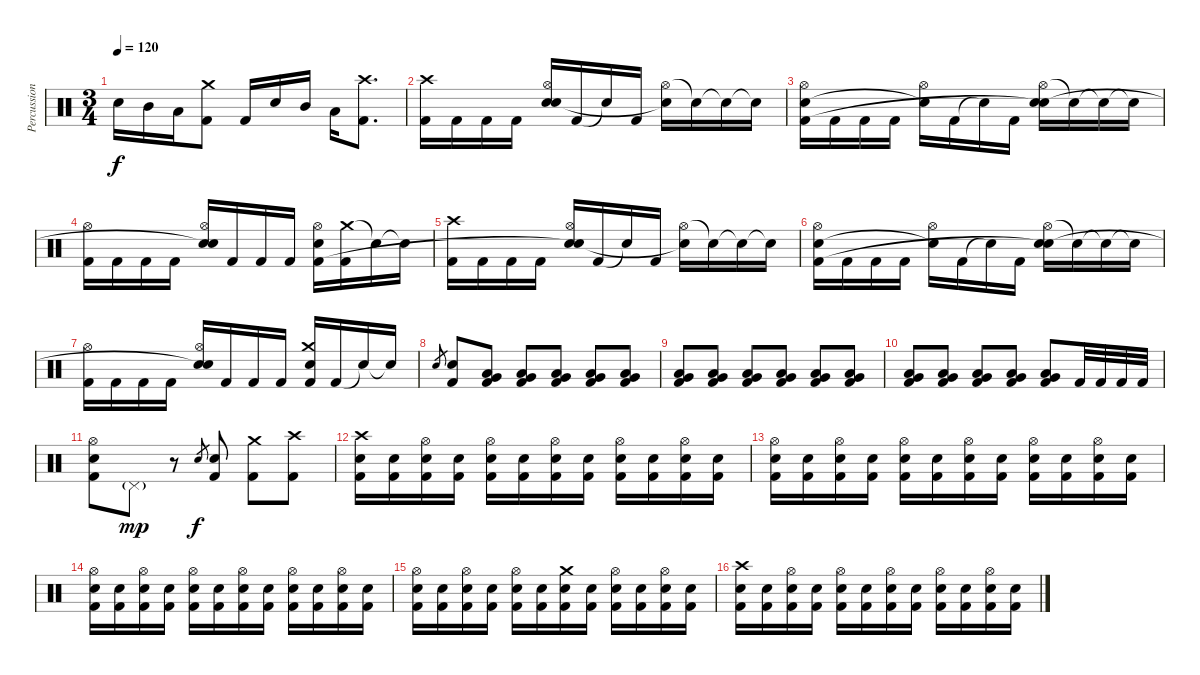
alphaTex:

\track ("Percussions" "Percussion") {instrument percussion}
\staff {score}
\articulation defaults
\ts (3 4)
\tempo 120
\clef neutral
\ks c "Electric Snare (hit)".16{dy f} "Mid Tom (hit)".16 "Low Tom (hit)".16
("Crash medium (hit)" "Kick (hit) 2").8 "Kick (hit) 2".16 "Electric Snare (hit)".16 "Mid Tom (hit)".16 "Low Tom (hit)".16 ("Crash high (hit)" "Kick (hit) 2").8{d} |
("Crash high (hit)" "Kick (hit) 2").16 "Kick (hit) 2".16 "Kick (hit) 2".16 "Kick (hit) 2".16 ("Hi-Hat (open)" "Electric Snare (hit)" "Snare (hit)"{t}).16 "Kick (hit) 2".16 "Snare (hit)"{t}.16 "Kick (hit) 2".16 ("Hi-Hat (open)" "Snare (hit)"{t}).16 "Snare (hit)"{t}.16 "Snare (hit)"{t}.16 "Snare (hit)"{t}.16 |
("Hi-Hat (open)" "Electric Snare (hit)" "Kick (hit) 2").16 "Kick (hit) 2".16 "Kick (hit) 2".16 "Kick (hit) 2".16 ("Hi-Hat (open)" "Snare (hit)"{t}).16 "Kick (hit) 2".16 "Snare (hit)"{t}.16 "Kick (hit) 2".16 ("Hi-Hat (open)" "Electric Snare (hit)" "Snare (hit)"{t}).16 "Snare (hit)"{t}.16 "Snare (hit)"{t}.16 "Snare (hit)"{t}.16 |
("Hi-Hat (open)" "Kick (hit) 2").16 "Kick (hit) 2".16 "Kick (hit) 2".16 "Kick (hit) 2".16 ("Hi-Hat (open)" "Electric Snare (hit)" "Snare (hit)"{t}).16 "Kick (hit) 2".16 "Kick (hit) 2".16 "Kick (hit) 2".16 ("Hi-Hat (open)" "Electric Snare (hit)" "Kick (hit) 2").16 ("Crash medium (hit)" "Kick (hit) 2").16 "Snare (hit)"{t}.16 "Snare (hit)"{t}.16 |
("Crash high (hit)" "Kick (hit) 2").16 "Kick (hit) 2".16 "Kick (hit) 2".16 "Kick (hit) 2".16 ("Hi-Hat (open)" "Electric Snare (hit)" "Snare (hit)"{t}).16 "Kick (hit) 2".16 "Snare (hit)"{t}.16 "Kick (hit) 2".16 ("Hi-Hat (open)" "Snare (hit)"{t}).16 "Snare (hit)"{t}.16 "Snare (hit)"{t}.16 "Snare (hit)"{t}.16 |
("Hi-Hat (open)" "Electric Snare (hit)" "Kick (hit) 2").16 "Kick (hit) 2".16 "Kick (hit) 2".16 "Kick (hit) 2".16 ("Hi-Hat (open)" "Snare (hit)"{t}).16 "Kick (hit) 2".16 "Snare (hit)"{t}.16 "Kick (hit) 2".16 ("Hi-Hat (open)" "Electric Snare (hit)" "Snare (hit)"{t}).16 "Snare (hit)"{t}.16 "Snare (hit)"{t}.16 "Snare (hit)"{t}.16 |
("Hi-Hat (open)" "Kick (hit) 2").16 "Kick (hit) 2".16 "Kick (hit) 2".16 "Kick (hit) 2".16 ("Hi-Hat (open)" "Electric Snare (hit)" "Snare (hit)"{t}).16 "Kick (hit) 2".16 "Kick (hit) 2".16 "Kick (hit) 2".16 ("Crash medium (hit)" "Electric Snare (hit)" "Kick (hit) 2").16 "Kick (hit) 2".16 "Snare (hit)"{t}.16 "Snare (hit)"{t}.16 |
"Electric Snare (hit)".8{gr} ("Electric Snare (hit)" "Kick (hit) 2").8 ("Low Tom (hit)" "Very Low Tom (hit)" "Kick (hit) 2").8 ("Low Tom (hit)" "Very Low Tom (hit)" "Kick (hit) 2").8 ("Low Tom (hit)" "Very Low Tom (hit)" "Kick (hit) 2").8 ("Low Tom (hit)" "Very Low Tom (hit)" "Kick (hit) 2").8 ("Low Tom (hit)" "Very Low Tom (hit)" "Kick (hit) 2").8 |
("Low Tom (hit)" "Very Low Tom (hit)" "Kick (hit) 2").8 ("Low Tom (hit)" "Very Low Tom (hit)" "Kick (hit) 2").8 ("Low Tom (hit)" "Very Low Tom (hit)" "Kick (hit) 2").8 ("Low Tom (hit)" "Very Low Tom (hit)" "Kick (hit) 2").8 ("Low Tom (hit)" "Very Low Tom (hit)" "Kick (hit) 2").8 ("Low Tom (hit)" "Very Low Tom (hit)" "Kick (hit) 2").8 |
("Low Tom (hit)" "Very Low Tom (hit)" "Kick (hit) 2").8 ("Low Tom (hit)" "Very Low Tom (hit)" "Kick (hit) 2").8 ("Low Tom (hit)" "Very Low Tom (hit)" "Kick (hit) 2").8 ("Low Tom (hit)" "Very Low Tom (hit)" "Kick (hit) 2").8 ("Low Tom (hit)" "Very Low Tom (hit)" "Kick (hit) 2").8 "Kick (hit) 2".32 "Kick (hit) 2".32 "Kick (hit) 2".32 "Kick (hit) 2".32 |
("Hi-Hat (open)" "Electric Snare (hit)" "Kick (hit) 2").8 "Pedal Hi-Hat (hit)"{g}.8{dy mp} r.8 "Electric Snare (hit)".8{gr dy f} ("Electric Snare (hit)" "Kick (hit) 2").8 ("Crash medium (hit)" "Kick (hit) 2").8 ("Crash high (hit)" "Kick (hit) 2").8 |
("Crash high (hit)" "Electric Snare (hit)" "Kick (hit) 2").16 ("Electric Snare (hit)" "Kick (hit) 2").16 ("Hi-Hat (open)" "Electric Snare (hit)" "Kick (hit) 2").16 ("Electric Snare (hit)" "Kick (hit) 2").16 ("Hi-Hat (open)" "Electric Snare (hit)" "Kick (hit) 2").16 ("Electric Snare (hit)" "Kick (hit) 2").16 ("Hi-Hat (open)" "Electric Snare (hit)" "Kick (hit) 2").16 ("Electric Snare (hit)" "Kick (hit) 2").16 ("Hi-Hat (open)" "Electric Snare (hit)" "Kick (hit) 2").16 ("Electric Snare (hit)" "Kick (hit) 2").16 ("Hi-Hat (open)" "Electric Snare (hit)" "Kick (hit) 2").16 ("Electric Snare (hit)" "Kick (hit) 2").16 |
("Hi-Hat (open)" "Electric Snare (hit)" "Kick (hit) 2").16 ("Electric Snare (hit)" "Kick (hit) 2").16 ("Hi-Hat (open)" "Electric Snare (hit)" "Kick (hit) 2").16 ("Electric Snare (hit)" "Kick (hit) 2").16 ("Hi-Hat (open)" "Electric Snare (hit)" "Kick (hit) 2").16 ("Electric Snare (hit)" "Kick (hit) 2").16 ("Hi-Hat (open)" "Electric Snare (hit)" "Kick (hit) 2").16 ("Electric Snare (hit)" "Kick (hit) 2").16 ("Hi-Hat (open)" "Electric Snare (hit)" "Kick (hit) 2").16 ("Electric Snare (hit)" "Kick (hit) 2").16 ("Hi-Hat (open)" "Electric Snare (hit)" "Kick (hit) 2").16 ("Electric Snare (hit)" "Kick (hit) 2").16 |
("Hi-Hat (open)" "Electric Snare (hit)" "Kick (hit) 2").16 ("Electric Snare (hit)" "Kick (hit) 2").16 ("Hi-Hat (open)" "Electric Snare (hit)" "Kick (hit) 2").16 ("Electric Snare (hit)" "Kick (hit) 2").16 ("Hi-Hat (open)" "Electric Snare (hit)" "Kick (hit) 2").16 ("Electric Snare (hit)" "Kick (hit) 2").16 ("Hi-Hat (open)" "Electric Snare (hit)" "Kick (hit) 2").16 ("Electric Snare (hit)" "Kick (hit) 2").16 ("Hi-Hat (open)" "Electric Snare (hit)" "Kick (hit) 2").16 ("Electric Snare (hit)" "Kick (hit) 2").16 ("Hi-Hat (open)" "Electric Snare (hit)" "Kick (hit) 2").16 ("Electric Snare (hit)" "Kick (hit) 2").16 |
("Hi-Hat (open)" "Electric Snare (hit)" "Kick (hit) 2").16 ("Electric Snare (hit)" "Kick (hit) 2").16 ("Hi-Hat (open)" "Electric Snare (hit)" "Kick (hit) 2").16 ("Electric Snare (hit)" "Kick (hit) 2").16 ("Hi-Hat (open)" "Electric Snare (hit)" "Kick (hit) 2").16 ("Electric Snare (hit)" "Kick (hit) 2").16 ("Crash medium (hit)" "Electric Snare (hit)" "Kick (hit) 2").16 ("Electric Snare (hit)" "Kick (hit) 2").16 ("Hi-Hat (open)" "Electric Snare (hit)" "Kick (hit) 2").16 ("Electric Snare (hit)" "Kick (hit) 2").16 ("Hi-Hat (open)" "Electric Snare (hit)" "Kick (hit) 2").16 ("Electric Snare (hit)" "Kick (hit) 2").16 |
("Crash high (hit)" "Electric Snare (hit)" "Kick (hit) 2").16 ("Electric Snare (hit)" "Kick (hit) 2").16 ("Hi-Hat (open)" "Electric Snare (hit)" "Kick (hit) 2").16 ("Electric Snare (hit)" "Kick (hit) 2").16 ("Hi-Hat (open)" "Electric Snare (hit)" "Kick (hit) 2").16 ("Electric Snare (hit)" "Kick (hit) 2").16 ("Hi-Hat (open)" "Electric Snare (hit)" "Kick (hit) 2").16 ("Electric Snare (hit)" "Kick (hit) 2").16 ("Hi-Hat (open)" "Electric Snare (hit)" "Kick (hit) 2").16 ("Electric Snare (hit)" "Kick (hit) 2").16 ("Hi-Hat (open)" "Electric Snare (hit)" "Kick (hit) 2").16 ("Electric Snare (hit)" "Kick (hit) 2").16
